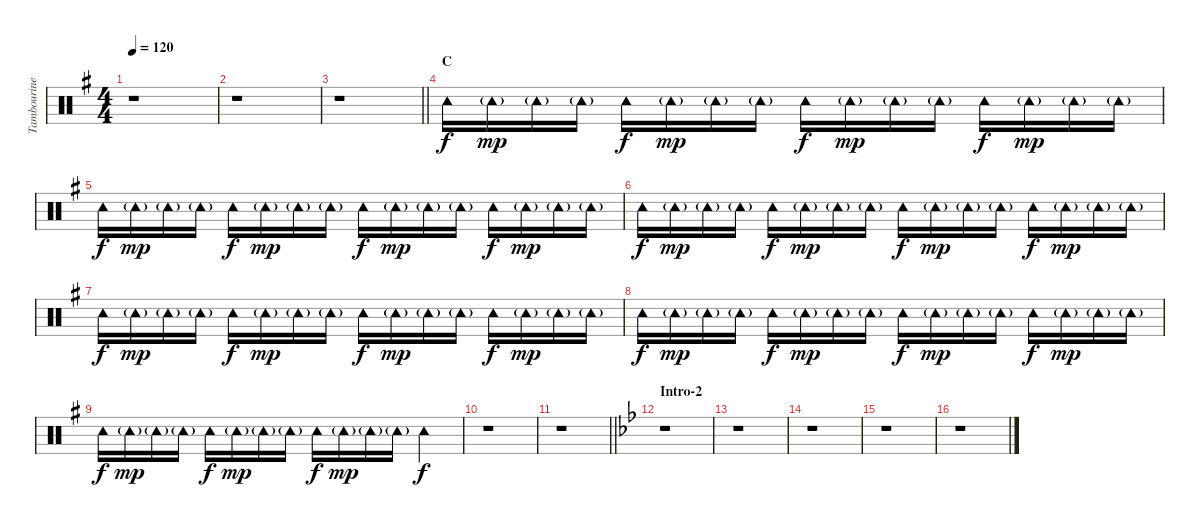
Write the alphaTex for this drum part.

\track ("Tambourine" "Tambourine") {instrument percussion}
\staff {score}
\articulation defaults
\ts (4 4)
\tempo 120
\clef neutral
\ks g
r.1{dy f} |
r.1 |
\barLineRight lightlight
r.1 |
\section ("" "C")
"Tambourine (hit)".16 "Tambourine (hit)"{g}.16{dy mp} "Tambourine (hit)"{g}.16 "Tambourine (hit)"{g}.16 "Tambourine (hit)".16{dy f} "Tambourine (hit)"{g}.16{dy mp} "Tambourine (hit)"{g}.16 "Tambourine (hit)"{g}.16 "Tambourine (hit)".16{dy f} "Tambourine (hit)"{g}.16{dy mp} "Tambourine (hit)"{g}.16 "Tambourine (hit)"{g}.16 "Tambourine (hit)".16{dy f} "Tambourine (hit)"{g}.16{dy mp} "Tambourine (hit)"{g}.16 "Tambourine (hit)"{g}.16 |
"Tambourine (hit)".16{dy f} "Tambourine (hit)"{g}.16{dy mp} "Tambourine (hit)"{g}.16 "Tambourine (hit)"{g}.16 "Tambourine (hit)".16{dy f} "Tambourine (hit)"{g}.16{dy mp} "Tambourine (hit)"{g}.16 "Tambourine (hit)"{g}.16 "Tambourine (hit)".16{dy f} "Tambourine (hit)"{g}.16{dy mp} "Tambourine (hit)"{g}.16 "Tambourine (hit)"{g}.16 "Tambourine (hit)".16{dy f} "Tambourine (hit)"{g}.16{dy mp} "Tambourine (hit)"{g}.16 "Tambourine (hit)"{g}.16 |
"Tambourine (hit)".16{dy f} "Tambourine (hit)"{g}.16{dy mp} "Tambourine (hit)"{g}.16 "Tambourine (hit)"{g}.16 "Tambourine (hit)".16{dy f} "Tambourine (hit)"{g}.16{dy mp} "Tambourine (hit)"{g}.16 "Tambourine (hit)"{g}.16 "Tambourine (hit)".16{dy f} "Tambourine (hit)"{g}.16{dy mp} "Tambourine (hit)"{g}.16 "Tambourine (hit)"{g}.16 "Tambourine (hit)".16{dy f} "Tambourine (hit)"{g}.16{dy mp} "Tambourine (hit)"{g}.16 "Tambourine (hit)"{g}.16 |
"Tambourine (hit)".16{dy f} "Tambourine (hit)"{g}.16{dy mp} "Tambourine (hit)"{g}.16 "Tambourine (hit)"{g}.16 "Tambourine (hit)".16{dy f} "Tambourine (hit)"{g}.16{dy mp} "Tambourine (hit)"{g}.16 "Tambourine (hit)"{g}.16 "Tambourine (hit)".16{dy f} "Tambourine (hit)"{g}.16{dy mp} "Tambourine (hit)"{g}.16 "Tambourine (hit)"{g}.16 "Tambourine (hit)".16{dy f} "Tambourine (hit)"{g}.16{dy mp} "Tambourine (hit)"{g}.16 "Tambourine (hit)"{g}.16 |
"Tambourine (hit)".16{dy f} "Tambourine (hit)"{g}.16{dy mp} "Tambourine (hit)"{g}.16 "Tambourine (hit)"{g}.16 "Tambourine (hit)".16{dy f} "Tambourine (hit)"{g}.16{dy mp} "Tambourine (hit)"{g}.16 "Tambourine (hit)"{g}.16 "Tambourine (hit)".16{dy f} "Tambourine (hit)"{g}.16{dy mp} "Tambourine (hit)"{g}.16 "Tambourine (hit)"{g}.16 "Tambourine (hit)".16{dy f} "Tambourine (hit)"{g}.16{dy mp} "Tambourine (hit)"{g}.16 "Tambourine (hit)"{g}.16 |
"Tambourine (hit)".16{dy f} "Tambourine (hit)"{g}.16{dy mp} "Tambourine (hit)"{g}.16 "Tambourine (hit)"{g}.16 "Tambourine (hit)".16{dy f} "Tambourine (hit)"{g}.16{dy mp} "Tambourine (hit)"{g}.16 "Tambourine (hit)"{g}.16 "Tambourine (hit)".16{dy f} "Tambourine (hit)"{g}.16{dy mp} "Tambourine (hit)"{g}.16 "Tambourine (hit)"{g}.16 "Tambourine (hit)".4{dy f} |
r.1 |
\barLineRight lightlight
r.1 |
\section ("" "Intro-2")
\ks bb
r.1 |
r.1 |
r.1 |
r.1 |
r.1
